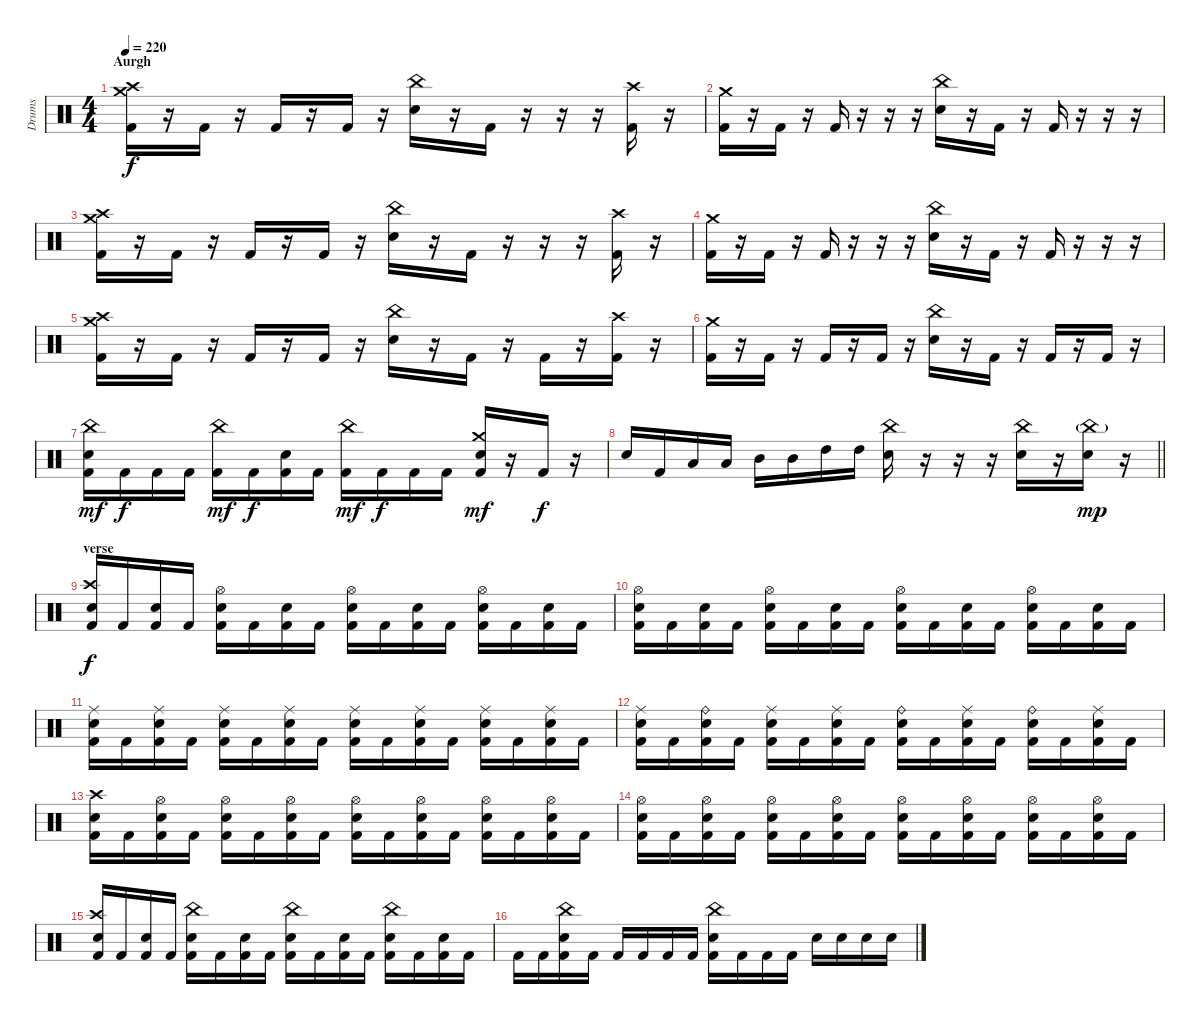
\track ("Drums" "Drums") {instrument percussion}
\staff {score}
\articulation defaults
\ts (4 4)
\section ("" "Aurgh")
\tempo 220
\clef neutral
\ks c
("Kick (hit) 2" "Crash medium (hit)" "Crash high (hit)").16{dy f} r.16 "Kick (hit) 2".16 r.16 "Kick (hit) 2".16 r.16 "Kick (hit) 2".16 r.16 ("Electric Snare (hit)" "China (hit)").16 r.16 "Kick (hit) 2".16 r.16 r.16 r.16 ("Kick (hit) 2" "Crash high (hit)").16 r.16 |
("Kick (hit) 2" "Crash medium (hit)").16 r.16 "Kick (hit) 2".16 r.16 "Kick (hit) 2".16 r.16 r.16 r.16 ("Electric Snare (hit)" "China (hit)").16 r.16 "Kick (hit) 2".16 r.16 "Kick (hit) 2".16 r.16 r.16 r.16 |
("Kick (hit) 2" "Crash medium (hit)" "Crash high (hit)").16 r.16 "Kick (hit) 2".16 r.16 "Kick (hit) 2".16 r.16 "Kick (hit) 2".16 r.16 ("Electric Snare (hit)" "China (hit)").16 r.16 "Kick (hit) 2".16 r.16 r.16 r.16 ("Kick (hit) 2" "Crash high (hit)").16 r.16 |
("Kick (hit) 2" "Crash medium (hit)").16 r.16 "Kick (hit) 2".16 r.16 "Kick (hit) 2".16 r.16 r.16 r.16 ("Electric Snare (hit)" "China (hit)").16 r.16 "Kick (hit) 2".16 r.16 "Kick (hit) 2".16 r.16 r.16 r.16 |
("Kick (hit) 2" "Crash medium (hit)" "Crash high (hit)").16 r.16 "Kick (hit) 2".16 r.16 "Kick (hit) 2".16 r.16 "Kick (hit) 2".16 r.16 ("Electric Snare (hit)" "China (hit)").16 r.16 "Kick (hit) 2".16 r.16 "Kick (hit) 2".16 r.16 ("Kick (hit) 2" "Crash high (hit)").16 r.16 |
("Kick (hit) 2" "Crash medium (hit)").16 r.16 "Kick (hit) 2".16 r.16 "Kick (hit) 2".16 r.16 "Kick (hit) 2".16 r.16 ("Electric Snare (hit)" "China (hit)").16 r.16 "Kick (hit) 2".16 r.16 "Kick (hit) 2".16 r.16 "Kick (hit) 2".16 r.16 |
("Kick (hit) 2" "Electric Snare (hit)" "China (hit)").16{dy mf} "Kick (hit) 2".16{dy f} "Kick (hit) 2".16 "Kick (hit) 2".16 ("Kick (hit) 2" "China (hit)").16{dy mf} "Kick (hit) 2".16{dy f} ("Kick (hit) 2" "Electric Snare (hit)").16 "Kick (hit) 2".16 ("Kick (hit) 2" "China (hit)").16{dy mf} "Kick (hit) 2".16{dy f} "Kick (hit) 2".16 "Kick (hit) 2".16 ("Kick (hit) 2" "Electric Snare (hit)" "Crash medium (hit)").16{dy mf} r.16 "Kick (hit) 2".16{dy f} r.16 |
\barLineRight lightlight "Electric Snare (hit)".16 "Kick (hit) 2".16 "Low Tom (hit)".16 "Low Tom (hit)".16 "Mid Tom (hit)".16 "Mid Tom (hit)".16 "High Tom (hit)".16 "High Tom (hit)".16
("Electric Snare (hit)" "China (hit)").16 r.16 r.16 r.16 ("Electric Snare (hit)" "China (hit)").16 r.16 ("Electric Snare (hit)" "China (hit)"{g}).16{dy mp} r.16 |
\section ("" "verse")
("Electric Snare (hit)" "Kick (hit) 2" "Crash high (hit)").16{dy f} "Kick (hit) 2".16 ("Electric Snare (hit)" "Kick (hit) 2").16 "Kick (hit) 2".16 ("Electric Snare (hit)" "Kick (hit) 2" "Hi-Hat (open)").16 "Kick (hit) 2".16 ("Electric Snare (hit)" "Kick (hit) 2").16 "Kick (hit) 2".16 ("Electric Snare (hit)" "Kick (hit) 2" "Hi-Hat (open)").16 "Kick (hit) 2".16 ("Electric Snare (hit)" "Kick (hit) 2").16 "Kick (hit) 2".16 ("Electric Snare (hit)" "Kick (hit) 2" "Hi-Hat (open)").16 "Kick (hit) 2".16 ("Electric Snare (hit)" "Kick (hit) 2").16 "Kick (hit) 2".16 |
("Electric Snare (hit)" "Kick (hit) 2" "Hi-Hat (open)").16 "Kick (hit) 2".16 ("Electric Snare (hit)" "Kick (hit) 2").16 "Kick (hit) 2".16 ("Electric Snare (hit)" "Kick (hit) 2" "Hi-Hat (open)").16 "Kick (hit) 2".16 ("Electric Snare (hit)" "Kick (hit) 2").16 "Kick (hit) 2".16 ("Electric Snare (hit)" "Kick (hit) 2" "Hi-Hat (open)").16 "Kick (hit) 2".16 ("Electric Snare (hit)" "Kick (hit) 2").16 "Kick (hit) 2".16 ("Electric Snare (hit)" "Kick (hit) 2" "Hi-Hat (open)").16 "Kick (hit) 2".16 ("Electric Snare (hit)" "Kick (hit) 2").16 "Kick (hit) 2".16 |
("Electric Snare (hit)" "Kick (hit) 2" "Ride (middle)").16 "Kick (hit) 2".16 ("Electric Snare (hit)" "Kick (hit) 2" "Ride (middle)").16 "Kick (hit) 2".16 ("Electric Snare (hit)" "Kick (hit) 2" "Ride (middle)").16 "Kick (hit) 2".16 ("Electric Snare (hit)" "Kick (hit) 2" "Ride (middle)").16 "Kick (hit) 2".16 ("Electric Snare (hit)" "Kick (hit) 2" "Ride (middle)").16 "Kick (hit) 2".16 ("Electric Snare (hit)" "Kick (hit) 2" "Ride (middle)").16 "Kick (hit) 2".16 ("Electric Snare (hit)" "Kick (hit) 2" "Ride (middle)").16 "Kick (hit) 2".16 ("Electric Snare (hit)" "Kick (hit) 2" "Ride (middle)").16 "Kick (hit) 2".16 |
("Electric Snare (hit)" "Kick (hit) 2" "Ride (middle)").16 "Kick (hit) 2".16 ("Electric Snare (hit)" "Kick (hit) 2" "Ride (bell)").16 "Kick (hit) 2".16 ("Electric Snare (hit)" "Kick (hit) 2" "Ride (middle)").16 "Kick (hit) 2".16 ("Electric Snare (hit)" "Kick (hit) 2" "Ride (middle)").16 "Kick (hit) 2".16 ("Electric Snare (hit)" "Kick (hit) 2" "Ride (bell)").16 "Kick (hit) 2".16 ("Electric Snare (hit)" "Kick (hit) 2" "Ride (middle)").16 "Kick (hit) 2".16 ("Electric Snare (hit)" "Kick (hit) 2" "Ride (bell)").16 "Kick (hit) 2".16 ("Electric Snare (hit)" "Kick (hit) 2" "Ride (middle)").16 "Kick (hit) 2".16 |
("Electric Snare (hit)" "Kick (hit) 2" "Crash high (hit)").16 "Kick (hit) 2".16 ("Electric Snare (hit)" "Kick (hit) 2" "Hi-Hat (open)").16 "Kick (hit) 2".16 ("Electric Snare (hit)" "Kick (hit) 2" "Hi-Hat (open)").16 "Kick (hit) 2".16 ("Electric Snare (hit)" "Kick (hit) 2" "Hi-Hat (open)").16 "Kick (hit) 2".16 ("Electric Snare (hit)" "Kick (hit) 2" "Hi-Hat (open)").16 "Kick (hit) 2".16 ("Electric Snare (hit)" "Kick (hit) 2" "Hi-Hat (open)").16 "Kick (hit) 2".16 ("Electric Snare (hit)" "Kick (hit) 2" "Hi-Hat (open)").16 "Kick (hit) 2".16 ("Electric Snare (hit)" "Kick (hit) 2" "Hi-Hat (open)").16 "Kick (hit) 2".16 |
("Electric Snare (hit)" "Kick (hit) 2" "Hi-Hat (open)").16 "Kick (hit) 2".16 ("Electric Snare (hit)" "Kick (hit) 2" "Hi-Hat (open)").16 "Kick (hit) 2".16 ("Electric Snare (hit)" "Kick (hit) 2" "Hi-Hat (open)").16 "Kick (hit) 2".16 ("Electric Snare (hit)" "Kick (hit) 2" "Hi-Hat (open)").16 "Kick (hit) 2".16 ("Electric Snare (hit)" "Kick (hit) 2" "Hi-Hat (open)").16 "Kick (hit) 2".16 ("Electric Snare (hit)" "Kick (hit) 2" "Hi-Hat (open)").16 "Kick (hit) 2".16 ("Electric Snare (hit)" "Kick (hit) 2" "Hi-Hat (open)").16 "Kick (hit) 2".16 ("Electric Snare (hit)" "Kick (hit) 2" "Hi-Hat (open)").16 "Kick (hit) 2".16 |
("Kick (hit) 2" "Electric Snare (hit)" "Crash high (hit)").16 "Kick (hit) 2".16 ("Kick (hit) 2" "Electric Snare (hit)").16 "Kick (hit) 2".16 ("Kick (hit) 2" "Electric Snare (hit)" "China (hit)").16 "Kick (hit) 2".16 ("Kick (hit) 2" "Electric Snare (hit)").16 "Kick (hit) 2".16 ("Kick (hit) 2" "Electric Snare (hit)" "China (hit)").16 "Kick (hit) 2".16 ("Kick (hit) 2" "Electric Snare (hit)").16 "Kick (hit) 2".16 ("Kick (hit) 2" "Electric Snare (hit)" "China (hit)").16 "Kick (hit) 2".16 ("Kick (hit) 2" "Electric Snare (hit)").16 "Kick (hit) 2".16 |
"Kick (hit) 2".16 "Kick (hit) 2".16 ("Kick (hit) 2" "Electric Snare (hit)" "China (hit)").16 "Kick (hit) 2".16 "Kick (hit) 2".16 "Kick (hit) 2".16 "Kick (hit) 2".16 "Kick (hit) 2".16 ("Kick (hit) 2" "Electric Snare (hit)" "China (hit)").16 "Kick (hit) 2".16 "Kick (hit) 2".16 "Kick (hit) 2".16 "Electric Snare (hit)".16 "Electric Snare (hit)".16 "Electric Snare (hit)".16 "Electric Snare (hit)".16
